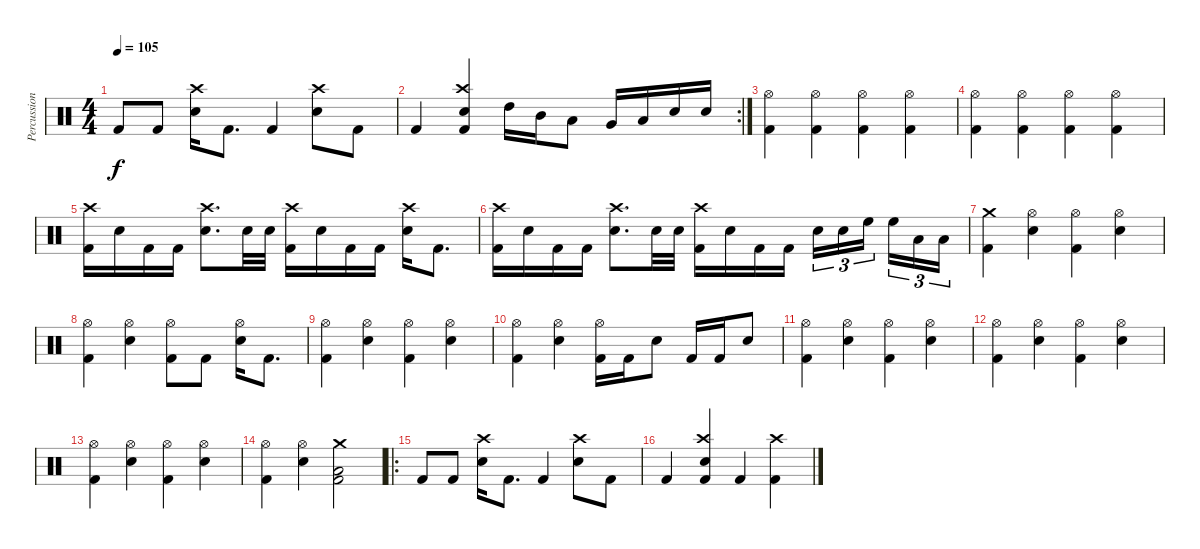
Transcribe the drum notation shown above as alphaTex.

\track ("Percussion" "Percussion") {instrument percussion}
\staff {score}
\articulation defaults
\ts (4 4)
\tempo 105
\clef neutral
\ks c "Kick (hit) 2".8{dy f} "Kick (hit) 2".8
("Crash high (hit)" "Electric Snare (hit)").16 "Kick (hit) 2".8{d} "Kick (hit) 2".4 ("Crash high (hit)" "Electric Snare (hit)").8 "Kick (hit) 2".8 |
\rc 2 "Kick (hit) 2".4
("Crash high (hit)" "Electric Snare (hit)" "Kick (hit) 2").4 "High Tom (hit)".16 "Mid Tom (hit)".16 "Low Tom (hit)".8 "Very Low Tom (hit)".16 "Low Floor Tom (hit)".16 "Electric Snare (hit)".16 "Electric Snare (hit)".16 |
("Hi-Hat (open)" "Kick (hit) 2").4 ("Hi-Hat (open)" "Kick (hit) 2").4 ("Hi-Hat (open)" "Kick (hit) 2").4 ("Hi-Hat (open)" "Kick (hit) 2").4 |
("Hi-Hat (open)" "Kick (hit) 2").4 ("Hi-Hat (open)" "Kick (hit) 2").4 ("Hi-Hat (open)" "Kick (hit) 2").4 ("Hi-Hat (open)" "Kick (hit) 2").4 |
("Crash high (hit)" "Kick (hit) 2").16 "Electric Snare (hit)".16 "Kick (hit) 2".16 "Kick (hit) 2".16 ("Crash high (hit)" "Electric Snare (hit)").8{d} "Electric Snare (hit)".32 "Electric Snare (hit)".32 ("Crash high (hit)" "Kick (hit) 2").16 "Electric Snare (hit)".16 "Kick (hit) 2".16 "Kick (hit) 2".16 ("Crash high (hit)" "Electric Snare (hit)").16 "Kick (hit) 2".8{d} |
("Crash high (hit)" "Kick (hit) 2").16 "Electric Snare (hit)".16 "Kick (hit) 2".16 "Kick (hit) 2".16 ("Crash high (hit)" "Electric Snare (hit)").8{d} "Electric Snare (hit)".32 "Electric Snare (hit)".32 ("Crash high (hit)" "Kick (hit) 2").16 "Electric Snare (hit)".16 "Kick (hit) 2".16 "Kick (hit) 2".16 "Electric Snare (hit)".16{tu (3 2)} "Electric Snare (hit)".16{tu (3 2)} "High Floor Tom (hit)".16{tu (3 2) beam splitsecondary} "High Floor Tom (hit)".16{tu (3 2)} "Low Tom (hit)".16{tu (3 2)} "Low Tom (hit)".16{tu (3 2)} |
("Crash medium (hit)" "Kick (hit) 2").4 ("Hi-Hat (open)" "Electric Snare (hit)").4 ("Hi-Hat (open)" "Kick (hit) 2").4 ("Hi-Hat (open)" "Electric Snare (hit)").4 |
("Hi-Hat (open)" "Kick (hit) 2").4 ("Hi-Hat (open)" "Electric Snare (hit)").4 ("Hi-Hat (open)" "Kick (hit) 2").8 "Kick (hit) 2".8 ("Hi-Hat (open)" "Electric Snare (hit)").16 "Kick (hit) 2".8{d} |
("Hi-Hat (open)" "Kick (hit) 2").4 ("Hi-Hat (open)" "Electric Snare (hit)").4 ("Hi-Hat (open)" "Kick (hit) 2").4 ("Hi-Hat (open)" "Electric Snare (hit)").4 |
("Hi-Hat (open)" "Kick (hit) 2").4 ("Hi-Hat (open)" "Electric Snare (hit)").4 ("Hi-Hat (open)" "Kick (hit) 2").16 "Kick (hit) 2".16 "Electric Snare (hit)".8 "Kick (hit) 2".16 "Kick (hit) 2".16 "Electric Snare (hit)".8 |
("Hi-Hat (open)" "Kick (hit) 2").4 ("Hi-Hat (open)" "Electric Snare (hit)").4 ("Hi-Hat (open)" "Kick (hit) 2").4 ("Hi-Hat (open)" "Electric Snare (hit)").4 |
("Hi-Hat (open)" "Kick (hit) 2").4 ("Hi-Hat (open)" "Electric Snare (hit)").4 ("Hi-Hat (open)" "Kick (hit) 2").4 ("Hi-Hat (open)" "Electric Snare (hit)").4 |
("Hi-Hat (open)" "Kick (hit) 2").4 ("Hi-Hat (open)" "Electric Snare (hit)").4 ("Hi-Hat (open)" "Kick (hit) 2").4 ("Hi-Hat (open)" "Electric Snare (hit)").4 |
("Hi-Hat (open)" "Kick (hit) 2").4 ("Hi-Hat (open)" "Electric Snare (hit)").4 ("Crash medium (hit)" "Low Floor Tom (hit)" "Kick (hit) 2").2 |
\ro "Kick (hit) 2".8 "Kick (hit) 2".8
("Crash high (hit)" "Electric Snare (hit)").16 "Kick (hit) 2".8{d} "Kick (hit) 2".4 ("Crash high (hit)" "Electric Snare (hit)").8 "Kick (hit) 2".8 |
"Kick (hit) 2".4 ("Crash high (hit)" "Electric Snare (hit)" "Kick (hit) 2").4 "Kick (hit) 2".4 ("Crash high (hit)" "Kick (hit) 2").4
